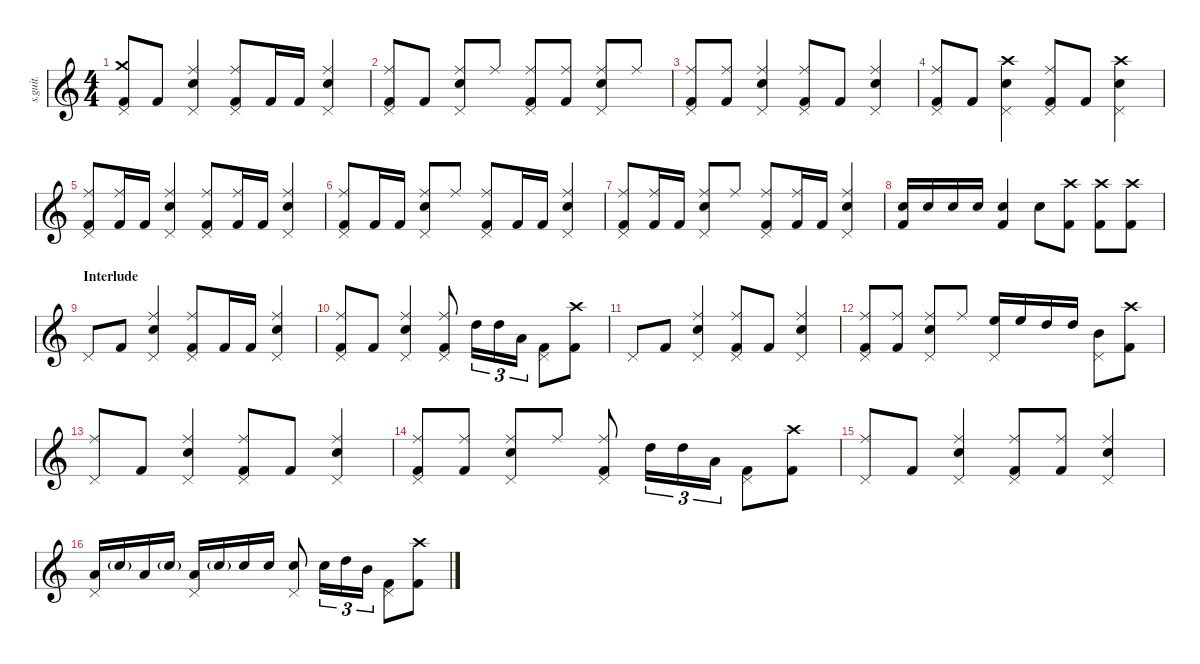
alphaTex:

\defaultSystemsLayout 4
\hideDynamics
\bracketExtendMode nobrackets
\track ("Nicko McBrain" "s.guit.") {instrument percussion}
\staff {score}
\articulation defaults
\ts (4 4)
\tempo (162 hide)
\clef g2
\ks c
("Pedal Hi-Hat (hit)" "Crash medium (hit)" "Kick (hit) 2").8{dy mf} "Kick (hit) 2".8 ("Pedal Hi-Hat (hit)" "Snare (hit) 2" "Ride (middle)").4 ("Ride (middle)" "Pedal Hi-Hat (hit)" "Kick (hit) 2").8 "Kick (hit) 2".16 "Kick (hit) 2".16 ("Pedal Hi-Hat (hit)" "Snare (hit) 2" "Ride (middle)").4 |
("Pedal Hi-Hat (hit)" "Kick (hit) 2" "Ride (middle)").8 "Kick (hit) 2".8 ("Snare (hit) 2" "Pedal Hi-Hat (hit)" "Ride (middle)").8 "Ride (middle)".8 ("Ride (middle)" "Kick (hit) 2" "Pedal Hi-Hat (hit)").8 ("Ride (middle)" "Kick (hit) 2").8 ("Snare (hit) 2" "Pedal Hi-Hat (hit)" "Ride (middle)").8 "Ride (middle)".8 |
("Pedal Hi-Hat (hit)" "Kick (hit) 2" "Ride (middle)").8 ("Kick (hit) 2" "Ride (middle)").8 ("Snare (hit) 2" "Pedal Hi-Hat (hit)" "Ride (middle)").4 ("Pedal Hi-Hat (hit)" "Kick (hit) 2" "Ride (middle)").8 "Kick (hit) 2".8 ("Snare (hit) 2" "Pedal Hi-Hat (hit)" "Ride (middle)").4 |
("Pedal Hi-Hat (hit)" "Kick (hit) 2" "Ride (middle)").8 "Kick (hit) 2".8 ("Snare (hit) 2" "Pedal Hi-Hat (hit)" "Crash high (hit)").4 ("Pedal Hi-Hat (hit)" "Kick (hit) 2" "Ride (middle)").8 "Kick (hit) 2".8 ("Snare (hit) 2" "Pedal Hi-Hat (hit)" "Crash high (hit)").4 |
("Ride (middle)" "Pedal Hi-Hat (hit)" "Kick (hit) 2").8 ("Kick (hit) 2" "Ride (middle)").16 "Kick (hit) 2".16 ("Pedal Hi-Hat (hit)" "Snare (hit) 2" "Ride (middle)").4 ("Ride (middle)" "Pedal Hi-Hat (hit)" "Kick (hit) 2").8 ("Kick (hit) 2" "Ride (middle)").16 "Kick (hit) 2".16 ("Pedal Hi-Hat (hit)" "Snare (hit) 2" "Ride (middle)").4 |
("Ride (middle)" "Pedal Hi-Hat (hit)" "Kick (hit) 2").8 "Kick (hit) 2".16 "Kick (hit) 2".16 ("Snare (hit) 2" "Pedal Hi-Hat (hit)" "Ride (middle)").8 "Ride (middle)".8 ("Ride (middle)" "Pedal Hi-Hat (hit)" "Kick (hit) 2").8 "Kick (hit) 2".16 "Kick (hit) 2".16 ("Snare (hit) 2" "Pedal Hi-Hat (hit)" "Ride (middle)").4 |
("Ride (middle)" "Pedal Hi-Hat (hit)" "Kick (hit) 2").8 ("Kick (hit) 2" "Ride (middle)").16 "Kick (hit) 2".16 ("Snare (hit) 2" "Pedal Hi-Hat (hit)" "Ride (middle)").8 "Ride (middle)".8 ("Ride (middle)" "Pedal Hi-Hat (hit)" "Kick (hit) 2").8 ("Kick (hit) 2" "Ride (middle)").16 "Kick (hit) 2".16 ("Snare (hit) 2" "Pedal Hi-Hat (hit)" "Ride (middle)").4 |
("Snare (hit) 2" "Kick (hit) 2").16 "Snare (hit) 2".16 "Snare (hit) 2".16 "Snare (hit) 2".16 ("Snare (hit) 2" "Kick (hit) 2").4 "Snare (hit) 2".8 ("Kick (hit) 2" "Crash high (hit)").8 ("Crash high (hit)" "Kick (hit) 2").8 ("Crash high (hit)" "Kick (hit) 2").8 |
\section ("" "Interlude")
"Pedal Hi-Hat (hit)".8 "Kick (hit) 2".8 ("Snare (hit) 2" "Pedal Hi-Hat (hit)" "Ride (middle)").4 ("Ride (middle)" "Pedal Hi-Hat (hit)" "Kick (hit) 2").8 "Kick (hit) 2".16 "Kick (hit) 2".16 ("Snare (hit) 2" "Pedal Hi-Hat (hit)" "Ride (middle)").4 |
("Pedal Hi-Hat (hit)" "Kick (hit) 2" "Ride (middle)").8 "Kick (hit) 2".8 ("Snare (hit) 2" "Pedal Hi-Hat (hit)" "Ride (middle)").4 ("Ride (middle)" "Pedal Hi-Hat (hit)" "Kick (hit) 2").8 "High Tom (hit)".16{tu (3 2)} "High Tom (hit)".16{tu (3 2)} "Low Tom (hit)".16{tu (3 2)} ("Kick (hit) 2" "Pedal Hi-Hat (hit)").8 ("Kick (hit) 2" "Crash high (hit)").8 |
"Pedal Hi-Hat (hit)".8 "Kick (hit) 2".8 ("Snare (hit) 2" "Pedal Hi-Hat (hit)" "Ride (middle)").4 ("Pedal Hi-Hat (hit)" "Kick (hit) 2" "Ride (middle)").8 "Kick (hit) 2".8 ("Snare (hit) 2" "Pedal Hi-Hat (hit)" "Ride (middle)").4 |
("Pedal Hi-Hat (hit)" "Kick (hit) 2" "Ride (middle)").8 ("Kick (hit) 2" "Ride (middle)").8 ("Snare (hit) 2" "Pedal Hi-Hat (hit)" "Ride (middle)").8 "Ride (middle)".8 ("Pedal Hi-Hat (hit)" "High Floor Tom (hit)").16 "High Floor Tom (hit)".16 "High Tom (hit)".16 "High Tom (hit)".16 ("Mid Tom (hit)" "Pedal Hi-Hat (hit)").8 ("Kick (hit) 2" "Crash high (hit)").8 |
("Pedal Hi-Hat (hit)" "Ride (middle)").8 "Kick (hit) 2".8 ("Snare (hit) 2" "Pedal Hi-Hat (hit)" "Ride (middle)").4 ("Pedal Hi-Hat (hit)" "Kick (hit) 2" "Ride (middle)").8 "Kick (hit) 2".8 ("Snare (hit) 2" "Pedal Hi-Hat (hit)" "Ride (middle)").4 |
("Pedal Hi-Hat (hit)" "Kick (hit) 2" "Ride (middle)").8 ("Kick (hit) 2" "Ride (middle)").8 ("Snare (hit) 2" "Pedal Hi-Hat (hit)" "Ride (middle)").8 "Ride (middle)".8 ("Ride (middle)" "Pedal Hi-Hat (hit)" "Kick (hit) 2").8 "High Tom (hit)".16{tu (3 2)} "High Tom (hit)".16{tu (3 2)} "Low Tom (hit)".16{tu (3 2)} ("Kick (hit) 2" "Pedal Hi-Hat (hit)").8 ("Kick (hit) 2" "Crash high (hit)").8 |
("Pedal Hi-Hat (hit)" "Ride (middle)").8 "Kick (hit) 2".8 ("Snare (hit) 2" "Pedal Hi-Hat (hit)" "Ride (middle)").4 ("Pedal Hi-Hat (hit)" "Kick (hit) 2" "Ride (middle)").8 ("Kick (hit) 2" "Ride (middle)").8 ("Snare (hit) 2" "Pedal Hi-Hat (hit)" "Ride (middle)").4 |
("Pedal Hi-Hat (hit)" "Low Tom (hit)").16 "Snare (hit) 2"{g}.16 "Low Tom (hit)".16 "Snare (hit) 2"{g}.16 ("Low Tom (hit)" "Pedal Hi-Hat (hit)").16 "Snare (hit) 2"{g}.16 "Snare (hit) 2".16 "Snare (hit) 2".16 ("Snare (hit) 2" "Pedal Hi-Hat (hit)").8 "Snare (hit) 2".16{tu (3 2)} "High Tom (hit)".16{tu (3 2)} "Mid Tom (hit)".16{tu (3 2)} ("Kick (hit) 2" "Pedal Hi-Hat (hit)").8 ("Kick (hit) 2" "Crash high (hit)").8
